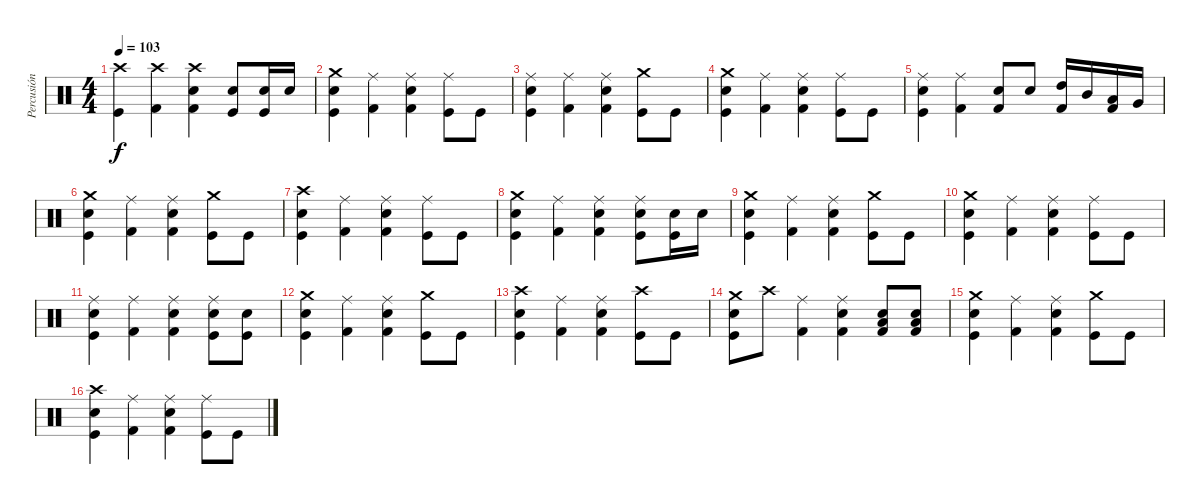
\track ("Percusión" "Percusión") {instrument percussion}
\staff {score}
\articulation defaults
\ts (4 4)
\tempo 103
\clef neutral
\ks c
("Crash high (hit)" "Kick (hit)").4{dy f} ("Crash high (hit)" "Kick (hit) 2").4 ("Crash high (hit)" "Snare (hit) 2" "Kick (hit) 2").4 ("Snare (hit) 2" "Kick (hit)").8 ("Snare (hit) 2" "Kick (hit)").16 "Snare (hit) 2".16 |
("Crash medium (hit)" "Kick (hit)" "Snare (hit) 2").4 ("Ride (middle)" "Kick (hit) 2").4 ("Ride (middle)" "Snare (hit) 2" "Kick (hit) 2").4 ("Ride (middle)" "Kick (hit)").8 "Kick (hit)".8 |
("Ride (middle)" "Kick (hit)" "Snare (hit) 2").4 ("Ride (middle)" "Kick (hit) 2").4 ("Ride (middle)" "Snare (hit) 2" "Kick (hit) 2").4 ("Crash medium (hit)" "Kick (hit)").8 "Kick (hit)".8 |
("Crash medium (hit)" "Kick (hit)" "Snare (hit) 2").4 ("Ride (middle)" "Kick (hit) 2").4 ("Ride (middle)" "Snare (hit) 2" "Kick (hit) 2").4 ("Ride (middle)" "Kick (hit)").8 "Kick (hit)".8 |
("Ride (middle)" "Kick (hit)" "Snare (hit) 2").4 ("Ride (middle)" "Kick (hit) 2").4 ("Snare (hit) 2" "Kick (hit) 2").8 "Snare (hit) 2".8 ("High Tom (hit)" "Kick (hit) 2").16 "Mid Tom (hit)".16 ("Low Tom (hit)" "Kick (hit) 2").16 "Very Low Tom (hit)".16 |
("Crash medium (hit)" "Kick (hit)" "Snare (hit) 2").4 ("Ride (middle)" "Kick (hit) 2").4 ("Ride (middle)" "Snare (hit) 2" "Kick (hit) 2").4 ("Crash medium (hit)" "Kick (hit)").8 "Kick (hit)".8 |
("Crash high (hit)" "Kick (hit)" "Snare (hit) 2").4 ("Ride (middle)" "Kick (hit) 2").4 ("Ride (middle)" "Snare (hit) 2" "Kick (hit) 2").4 ("Ride (middle)" "Kick (hit)").8 "Kick (hit)".8 |
("Crash medium (hit)" "Kick (hit)" "Snare (hit) 2").4 ("Ride (middle)" "Kick (hit) 2").4 ("Ride (middle)" "Snare (hit) 2" "Kick (hit) 2").4 ("Ride (middle)" "Kick (hit)" "Snare (hit) 2").8 ("Kick (hit)" "Snare (hit) 2").16 "Snare (hit) 2".16 |
("Crash medium (hit)" "Kick (hit)" "Snare (hit) 2").4 ("Ride (middle)" "Kick (hit) 2").4 ("Ride (middle)" "Snare (hit) 2" "Kick (hit) 2").4 ("Crash medium (hit)" "Kick (hit)").8 "Kick (hit)".8 |
("Crash medium (hit)" "Kick (hit)" "Snare (hit) 2").4 ("Ride (middle)" "Kick (hit) 2").4 ("Ride (middle)" "Snare (hit) 2" "Kick (hit) 2").4 ("Ride (middle)" "Kick (hit)").8 "Kick (hit)".8 |
("Ride (middle)" "Kick (hit)" "Snare (hit) 2").4 ("Ride (middle)" "Kick (hit) 2").4 ("Ride (middle)" "Snare (hit) 2" "Kick (hit) 2").4 ("Ride (middle)" "Kick (hit)" "Snare (hit) 2").8 ("Snare (hit) 2" "Kick (hit)").8 |
("Crash medium (hit)" "Kick (hit)" "Snare (hit) 2").4 ("Ride (middle)" "Kick (hit) 2").4 ("Ride (middle)" "Snare (hit) 2" "Kick (hit) 2").4 ("Crash medium (hit)" "Kick (hit)").8 "Kick (hit)".8 |
("Crash high (hit)" "Snare (hit) 2" "Kick (hit)").4 ("Ride (middle)" "Kick (hit) 2").4 ("Ride (middle)" "Snare (hit) 2" "Kick (hit) 2").4 ("Crash high (hit)" "Kick (hit)").8 "Kick (hit)".8 |
("Crash medium (hit)" "Kick (hit)" "Snare (hit) 2").8 "Crash high (hit)".8 ("Ride (middle)" "Kick (hit) 2").4 ("Ride (middle)" "Snare (hit) 2" "Kick (hit) 2").4 ("Snare (hit) 2" "Kick (hit) 2" "Low Floor Tom (hit)").8 ("Snare (hit) 2" "Kick (hit) 2" "Low Floor Tom (hit)").8 |
("Crash medium (hit)" "Kick (hit)" "Snare (hit) 2").4 ("Ride (middle)" "Kick (hit) 2").4 ("Ride (middle)" "Snare (hit) 2" "Kick (hit) 2").4 ("Crash medium (hit)" "Kick (hit)").8 "Kick (hit)".8 |
("Crash high (hit)" "Kick (hit)" "Snare (hit) 2").4 ("Ride (middle)" "Kick (hit) 2").4 ("Ride (middle)" "Snare (hit) 2" "Kick (hit) 2").4 ("Ride (middle)" "Kick (hit)").8 "Kick (hit)".8
